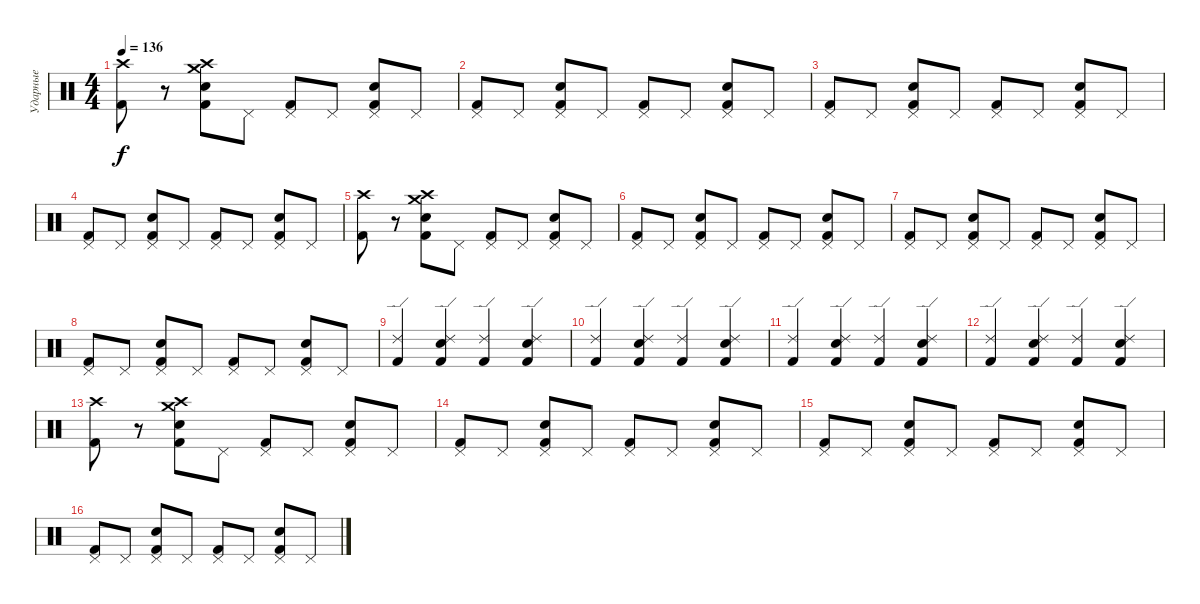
\track ("Ударные" "Ударные") {instrument percussion}
\staff {score}
\articulation defaults
\ts (4 4)
\tempo 136
\clef neutral
\ks c
("Crash high (hit)" "Kick (hit) 2").8{dy f} r.8 ("Crash medium (hit)" "Crash high (hit)" "Snare (hit) 2" "Kick (hit) 2").8 "Pedal Hi-Hat (hit)".8 ("Pedal Hi-Hat (hit)" "Kick (hit) 2").8 "Pedal Hi-Hat (hit)".8 ("Pedal Hi-Hat (hit)" "Snare (hit) 2" "Kick (hit) 2").8 "Pedal Hi-Hat (hit)".8 |
("Pedal Hi-Hat (hit)" "Kick (hit) 2").8 "Pedal Hi-Hat (hit)".8 ("Pedal Hi-Hat (hit)" "Snare (hit) 2" "Kick (hit) 2").8 "Pedal Hi-Hat (hit)".8 ("Pedal Hi-Hat (hit)" "Kick (hit) 2").8 "Pedal Hi-Hat (hit)".8 ("Pedal Hi-Hat (hit)" "Snare (hit) 2" "Kick (hit) 2").8 "Pedal Hi-Hat (hit)".8 |
("Pedal Hi-Hat (hit)" "Kick (hit) 2").8 "Pedal Hi-Hat (hit)".8 ("Pedal Hi-Hat (hit)" "Snare (hit) 2" "Kick (hit) 2").8 "Pedal Hi-Hat (hit)".8 ("Pedal Hi-Hat (hit)" "Kick (hit) 2").8 "Pedal Hi-Hat (hit)".8 ("Pedal Hi-Hat (hit)" "Snare (hit) 2" "Kick (hit) 2").8 "Pedal Hi-Hat (hit)".8 |
("Pedal Hi-Hat (hit)" "Kick (hit) 2").8 "Pedal Hi-Hat (hit)".8 ("Pedal Hi-Hat (hit)" "Snare (hit) 2" "Kick (hit) 2").8 "Pedal Hi-Hat (hit)".8 ("Pedal Hi-Hat (hit)" "Kick (hit) 2").8 "Pedal Hi-Hat (hit)".8 ("Pedal Hi-Hat (hit)" "Snare (hit) 2" "Kick (hit) 2").8 "Pedal Hi-Hat (hit)".8 |
("Crash high (hit)" "Kick (hit) 2").8 r.8 ("Crash medium (hit)" "Crash high (hit)" "Snare (hit) 2" "Kick (hit) 2").8 "Pedal Hi-Hat (hit)".8 ("Pedal Hi-Hat (hit)" "Kick (hit) 2").8 "Pedal Hi-Hat (hit)".8 ("Pedal Hi-Hat (hit)" "Snare (hit) 2" "Kick (hit) 2").8 "Pedal Hi-Hat (hit)".8 |
("Pedal Hi-Hat (hit)" "Kick (hit) 2").8 "Pedal Hi-Hat (hit)".8 ("Pedal Hi-Hat (hit)" "Snare (hit) 2" "Kick (hit) 2").8 "Pedal Hi-Hat (hit)".8 ("Pedal Hi-Hat (hit)" "Kick (hit) 2").8 "Pedal Hi-Hat (hit)".8 ("Pedal Hi-Hat (hit)" "Snare (hit) 2" "Kick (hit) 2").8 "Pedal Hi-Hat (hit)".8 |
("Pedal Hi-Hat (hit)" "Kick (hit) 2").8 "Pedal Hi-Hat (hit)".8 ("Pedal Hi-Hat (hit)" "Snare (hit) 2" "Kick (hit) 2").8 "Pedal Hi-Hat (hit)".8 ("Pedal Hi-Hat (hit)" "Kick (hit) 2").8 "Pedal Hi-Hat (hit)".8 ("Pedal Hi-Hat (hit)" "Snare (hit) 2" "Kick (hit) 2").8 "Pedal Hi-Hat (hit)".8 |
("Pedal Hi-Hat (hit)" "Kick (hit) 2").8 "Pedal Hi-Hat (hit)".8 ("Pedal Hi-Hat (hit)" "Snare (hit) 2" "Kick (hit) 2").8 "Pedal Hi-Hat (hit)".8 ("Pedal Hi-Hat (hit)" "Kick (hit) 2").8 "Pedal Hi-Hat (hit)".8 ("Pedal Hi-Hat (hit)" "Snare (hit) 2" "Kick (hit) 2").8 "Pedal Hi-Hat (hit)".8 |
("Ride (edge) 2" "Kick (hit) 2").4 ("Ride (edge) 2" "Snare (hit) 2" "Kick (hit) 2").4 ("Ride (edge) 2" "Kick (hit) 2").4 ("Ride (edge) 2" "Snare (hit) 2" "Kick (hit) 2").4 |
("Ride (edge) 2" "Kick (hit) 2").4 ("Ride (edge) 2" "Snare (hit) 2" "Kick (hit) 2").4 ("Ride (edge) 2" "Kick (hit) 2").4 ("Ride (edge) 2" "Snare (hit) 2" "Kick (hit) 2").4 |
("Ride (edge) 2" "Kick (hit) 2").4 ("Ride (edge) 2" "Snare (hit) 2" "Kick (hit) 2").4 ("Ride (edge) 2" "Kick (hit) 2").4 ("Ride (edge) 2" "Snare (hit) 2" "Kick (hit) 2").4 |
("Ride (edge) 2" "Kick (hit) 2").4 ("Ride (edge) 2" "Snare (hit) 2" "Kick (hit) 2").4 ("Ride (edge) 2" "Kick (hit) 2").4 ("Ride (edge) 2" "Snare (hit) 2" "Kick (hit) 2").4 |
("Crash high (hit)" "Kick (hit) 2").8 r.8 ("Crash medium (hit)" "Crash high (hit)" "Snare (hit) 2" "Kick (hit) 2").8 "Pedal Hi-Hat (hit)".8 ("Pedal Hi-Hat (hit)" "Kick (hit) 2").8 "Pedal Hi-Hat (hit)".8 ("Pedal Hi-Hat (hit)" "Snare (hit) 2" "Kick (hit) 2").8 "Pedal Hi-Hat (hit)".8 |
("Pedal Hi-Hat (hit)" "Kick (hit) 2").8 "Pedal Hi-Hat (hit)".8 ("Pedal Hi-Hat (hit)" "Snare (hit) 2" "Kick (hit) 2").8 "Pedal Hi-Hat (hit)".8 ("Pedal Hi-Hat (hit)" "Kick (hit) 2").8 "Pedal Hi-Hat (hit)".8 ("Pedal Hi-Hat (hit)" "Snare (hit) 2" "Kick (hit) 2").8 "Pedal Hi-Hat (hit)".8 |
("Pedal Hi-Hat (hit)" "Kick (hit) 2").8 "Pedal Hi-Hat (hit)".8 ("Pedal Hi-Hat (hit)" "Snare (hit) 2" "Kick (hit) 2").8 "Pedal Hi-Hat (hit)".8 ("Pedal Hi-Hat (hit)" "Kick (hit) 2").8 "Pedal Hi-Hat (hit)".8 ("Pedal Hi-Hat (hit)" "Snare (hit) 2" "Kick (hit) 2").8 "Pedal Hi-Hat (hit)".8 |
("Pedal Hi-Hat (hit)" "Kick (hit) 2").8 "Pedal Hi-Hat (hit)".8 ("Pedal Hi-Hat (hit)" "Snare (hit) 2" "Kick (hit) 2").8 "Pedal Hi-Hat (hit)".8 ("Pedal Hi-Hat (hit)" "Kick (hit) 2").8 "Pedal Hi-Hat (hit)".8 ("Pedal Hi-Hat (hit)" "Snare (hit) 2" "Kick (hit) 2").8 "Pedal Hi-Hat (hit)".8
